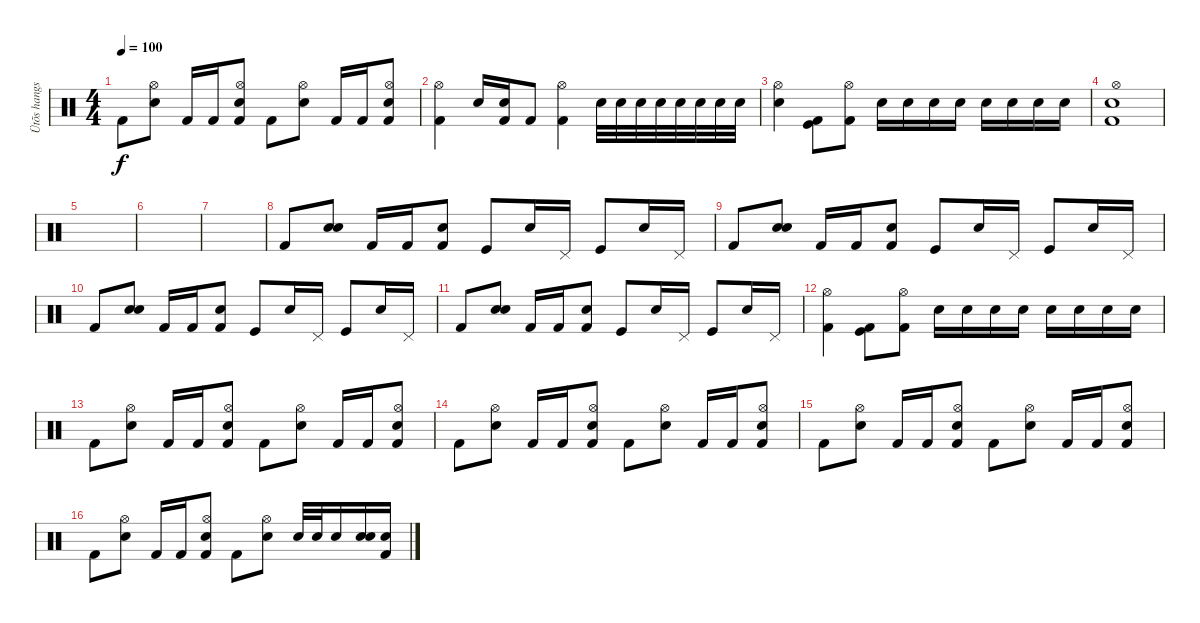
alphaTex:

\track ("Ütõs hangszer" "Ütõs hangs") {instrument percussion}
\staff {score}
\articulation defaults
\ts (4 4)
\tempo 100
\clef neutral
\ks c "Kick (hit) 2".8{dy f}
("Hi-Hat (open)" "Snare (hit) 2").8 "Kick (hit) 2".16 "Kick (hit) 2".16 ("Hi-Hat (open)" "Kick (hit) 2" "Snare (hit) 2").8 "Kick (hit) 2".8 ("Hi-Hat (open)" "Snare (hit) 2").8 "Kick (hit) 2".16 "Kick (hit) 2".16 ("Hi-Hat (open)" "Kick (hit) 2" "Snare (hit) 2").8 |
("Kick (hit) 2" "Hi-Hat (open)").4 "Snare (hit) 2".16 ("Kick (hit) 2" "Snare (hit) 2").16 "Kick (hit) 2".8 ("Kick (hit) 2" "Hi-Hat (open)").4 "Snare (hit) 2".32 "Snare (hit) 2".32 "Snare (hit) 2".32 "Snare (hit) 2".32 "Snare (hit) 2".32 "Snare (hit) 2".32 "Snare (hit) 2".32 "Snare (hit) 2".32 |
("Snare (hit) 2" "Hi-Hat (open)").4 ("Kick (hit) 2" "Kick (hit)").8 ("Kick (hit) 2" "Hi-Hat (open)").8 "Snare (hit) 2".16 "Snare (hit) 2".16 "Snare (hit) 2".16 "Snare (hit) 2".16 "Snare (hit) 2".16 "Snare (hit) 2".16 "Snare (hit) 2".16 "Snare (hit) 2".16 |
("Kick (hit) 2" "Snare (hit) 2" "Hi-Hat (open)").1 |
|
|
|
"Kick (hit) 2".8 ("Snare (hit) 2" "Snare (hit) 2").8 "Kick (hit) 2".16 "Kick (hit) 2".16 ("Kick (hit) 2" "Snare (hit) 2").8 "Kick (hit)".8 "Snare (hit) 2".16 "Pedal Hi-Hat (hit)".16 "Kick (hit)".8 "Snare (hit) 2".16 "Pedal Hi-Hat (hit)".16 |
"Kick (hit) 2".8 ("Snare (hit) 2" "Snare (hit) 2").8 "Kick (hit) 2".16 "Kick (hit) 2".16 ("Kick (hit) 2" "Snare (hit) 2").8 "Kick (hit)".8 "Snare (hit) 2".16 "Pedal Hi-Hat (hit)".16 "Kick (hit)".8 "Snare (hit) 2".16 "Pedal Hi-Hat (hit)".16 |
"Kick (hit) 2".8 ("Snare (hit) 2" "Snare (hit) 2").8 "Kick (hit) 2".16 "Kick (hit) 2".16 ("Kick (hit) 2" "Snare (hit) 2").8 "Kick (hit)".8 "Snare (hit) 2".16 "Pedal Hi-Hat (hit)".16 "Kick (hit)".8 "Snare (hit) 2".16 "Pedal Hi-Hat (hit)".16 |
"Kick (hit) 2".8 ("Snare (hit) 2" "Snare (hit) 2").8 "Kick (hit) 2".16 "Kick (hit) 2".16 ("Kick (hit) 2" "Snare (hit) 2").8 "Kick (hit)".8 "Snare (hit) 2".16 "Pedal Hi-Hat (hit)".16 "Kick (hit)".8 "Snare (hit) 2".16 "Pedal Hi-Hat (hit)".16 |
("Kick (hit) 2" "Hi-Hat (open)").4 ("Kick (hit) 2" "Kick (hit)").8 ("Kick (hit) 2" "Hi-Hat (open)").8 "Snare (hit) 2".16 "Snare (hit) 2".16 "Snare (hit) 2".16 "Snare (hit) 2".16 "Snare (hit) 2".16 "Snare (hit) 2".16 "Snare (hit) 2".16 "Snare (hit) 2".16 |
"Kick (hit) 2".8 ("Hi-Hat (open)" "Snare (hit) 2").8 "Kick (hit) 2".16 "Kick (hit) 2".16 ("Hi-Hat (open)" "Kick (hit) 2" "Snare (hit) 2").8 "Kick (hit) 2".8 ("Hi-Hat (open)" "Snare (hit) 2").8 "Kick (hit) 2".16 "Kick (hit) 2".16 ("Hi-Hat (open)" "Kick (hit) 2" "Snare (hit) 2").8 |
"Kick (hit) 2".8 ("Hi-Hat (open)" "Snare (hit) 2").8 "Kick (hit) 2".16 "Kick (hit) 2".16 ("Hi-Hat (open)" "Kick (hit) 2" "Snare (hit) 2").8 "Kick (hit) 2".8 ("Hi-Hat (open)" "Snare (hit) 2").8 "Kick (hit) 2".16 "Kick (hit) 2".16 ("Hi-Hat (open)" "Kick (hit) 2" "Snare (hit) 2").8 |
"Kick (hit) 2".8 ("Hi-Hat (open)" "Snare (hit) 2").8 "Kick (hit) 2".16 "Kick (hit) 2".16 ("Hi-Hat (open)" "Kick (hit) 2" "Snare (hit) 2").8 "Kick (hit) 2".8 ("Hi-Hat (open)" "Snare (hit) 2").8 "Kick (hit) 2".16 "Kick (hit) 2".16 ("Hi-Hat (open)" "Kick (hit) 2" "Snare (hit) 2").8 |
"Kick (hit) 2".8 ("Hi-Hat (open)" "Snare (hit) 2").8 "Kick (hit) 2".16 "Kick (hit) 2".16 ("Hi-Hat (open)" "Kick (hit) 2" "Snare (hit) 2").8 "Kick (hit) 2".8 ("Hi-Hat (open)" "Snare (hit) 2").8 "Snare (hit) 2".32 "Snare (hit) 2".32 "Snare (hit) 2".16 ("Snare (hit) 2" "Snare (hit) 2").16 ("Kick (hit) 2" "Snare (hit) 2").16
